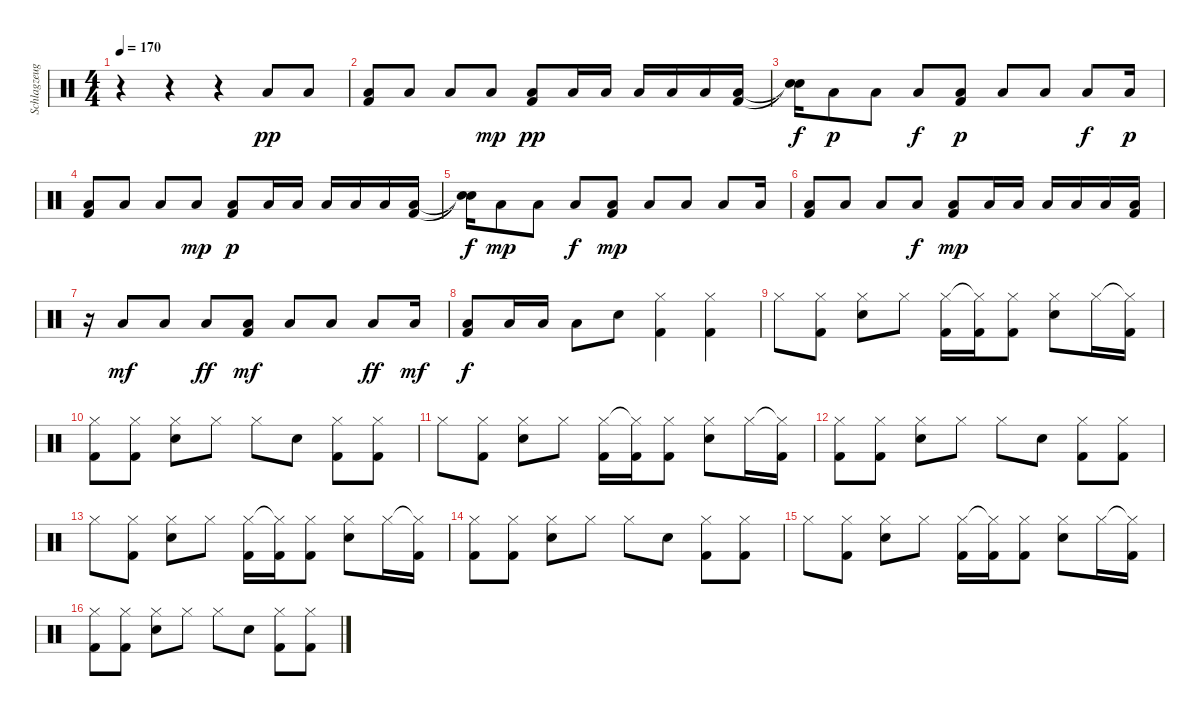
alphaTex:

\track ("Schlagzeug (Bela)" "Schlagzeug") {instrument percussion}
\staff {score}
\articulation defaults
\ts (4 4)
\tempo 170
\clef neutral
\ks c
r.4{dy pp} r.4 r.4 "Low Floor Tom (hit)".8 "Low Floor Tom (hit)".8 |
("Low Floor Tom (hit)" "Kick (hit) 2").8 "Low Floor Tom (hit)".8 "Low Floor Tom (hit)".8 "Low Floor Tom (hit)".8{dy mp} ("Low Floor Tom (hit)" "Kick (hit) 2").8{dy pp} "Low Floor Tom (hit)".16 "Low Floor Tom (hit)".16 "Low Floor Tom (hit)".16 "Low Floor Tom (hit)".16 "Low Floor Tom (hit)".16 ("Low Floor Tom (hit)" "Kick (hit) 2").16 |
("Snare (hit)"{t} "Snare (hit)"{t}).16{dy f} "Low Floor Tom (hit)".8{dy p} "Low Floor Tom (hit)".8 "Low Floor Tom (hit)".8{dy f} ("Low Floor Tom (hit)" "Kick (hit) 2").8{dy p} "Low Floor Tom (hit)".8 "Low Floor Tom (hit)".8 "Low Floor Tom (hit)".8{dy f} "Low Floor Tom (hit)".16{dy p} |
("Low Floor Tom (hit)" "Kick (hit) 2").8 "Low Floor Tom (hit)".8 "Low Floor Tom (hit)".8 "Low Floor Tom (hit)".8{dy mp} ("Low Floor Tom (hit)" "Kick (hit) 2").8{dy p} "Low Floor Tom (hit)".16 "Low Floor Tom (hit)".16 "Low Floor Tom (hit)".16 "Low Floor Tom (hit)".16 "Low Floor Tom (hit)".16 ("Low Floor Tom (hit)" "Kick (hit) 2").16 |
("Snare (hit)"{t} "Snare (hit)"{t}).16{dy f} "Low Floor Tom (hit)".8{dy mp} "Low Floor Tom (hit)".8 "Low Floor Tom (hit)".8{dy f} ("Low Floor Tom (hit)" "Kick (hit) 2").8{dy mp} "Low Floor Tom (hit)".8 "Low Floor Tom (hit)".8 "Low Floor Tom (hit)".8 "Low Floor Tom (hit)".16 |
("Low Floor Tom (hit)" "Kick (hit) 2").8 "Low Floor Tom (hit)".8 "Low Floor Tom (hit)".8 "Low Floor Tom (hit)".8{dy f} ("Low Floor Tom (hit)" "Kick (hit) 2").8{dy mp} "Low Floor Tom (hit)".16 "Low Floor Tom (hit)".16 "Low Floor Tom (hit)".16 "Low Floor Tom (hit)".16 "Low Floor Tom (hit)".16 ("Low Floor Tom (hit)" "Kick (hit) 2").16 |
r.16 "Low Floor Tom (hit)".8{dy mf} "Low Floor Tom (hit)".8 "Low Floor Tom (hit)".8{dy ff} ("Low Floor Tom (hit)" "Kick (hit) 2").8{dy mf} "Low Floor Tom (hit)".8 "Low Floor Tom (hit)".8 "Low Floor Tom (hit)".8{dy ff} "Low Floor Tom (hit)".16{dy mf} |
("Low Floor Tom (hit)" "Kick (hit) 2").8{dy f} "Low Floor Tom (hit)".16 "Low Floor Tom (hit)".16 "Low Floor Tom (hit)".8 "Snare (hit) 2".8 ("Hi-Hat (closed)" "Kick (hit) 2").4 ("Hi-Hat (closed)" "Kick (hit) 2").4 |
"Hi-Hat (closed)".8 ("Hi-Hat (closed)" "Kick (hit) 2").8 ("Hi-Hat (closed)" "Snare (hit) 2").8 "Hi-Hat (closed)".8 ("Hi-Hat (closed)" "Kick (hit) 2").16 ("Hi-Hat (closed)"{t} "Kick (hit) 2").16 ("Hi-Hat (closed)" "Kick (hit) 2").8 ("Hi-Hat (closed)" "Snare (hit) 2").8 "Hi-Hat (closed)".16 ("Hi-Hat (closed)"{t} "Kick (hit) 2").16 |
("Hi-Hat (closed)" "Kick (hit) 2").8 ("Hi-Hat (closed)" "Kick (hit) 2").8 ("Hi-Hat (closed)" "Snare (hit) 2").8 "Hi-Hat (closed)".8 "Hi-Hat (closed)".8 "Snare (hit) 2".8 ("Hi-Hat (closed)" "Kick (hit) 2").8 ("Hi-Hat (closed)" "Kick (hit) 2").8 |
"Hi-Hat (closed)".8 ("Hi-Hat (closed)" "Kick (hit) 2").8 ("Hi-Hat (closed)" "Snare (hit) 2").8 "Hi-Hat (closed)".8 ("Hi-Hat (closed)" "Kick (hit) 2").16 ("Hi-Hat (closed)"{t} "Kick (hit) 2").16 ("Hi-Hat (closed)" "Kick (hit) 2").8 ("Hi-Hat (closed)" "Snare (hit) 2").8 "Hi-Hat (closed)".16 ("Hi-Hat (closed)"{t} "Kick (hit) 2").16 |
("Hi-Hat (closed)" "Kick (hit) 2").8 ("Hi-Hat (closed)" "Kick (hit) 2").8 ("Hi-Hat (closed)" "Snare (hit) 2").8 "Hi-Hat (closed)".8 "Hi-Hat (closed)".8 "Snare (hit) 2".8 ("Hi-Hat (closed)" "Kick (hit) 2").8 ("Hi-Hat (closed)" "Kick (hit) 2").8 |
"Hi-Hat (closed)".8 ("Hi-Hat (closed)" "Kick (hit) 2").8 ("Hi-Hat (closed)" "Snare (hit) 2").8 "Hi-Hat (closed)".8 ("Hi-Hat (closed)" "Kick (hit) 2").16 ("Hi-Hat (closed)"{t} "Kick (hit) 2").16 ("Hi-Hat (closed)" "Kick (hit) 2").8 ("Hi-Hat (closed)" "Snare (hit) 2").8 "Hi-Hat (closed)".16 ("Hi-Hat (closed)"{t} "Kick (hit) 2").16 |
("Hi-Hat (closed)" "Kick (hit) 2").8 ("Hi-Hat (closed)" "Kick (hit) 2").8 ("Hi-Hat (closed)" "Snare (hit) 2").8 "Hi-Hat (closed)".8 "Hi-Hat (closed)".8 "Snare (hit) 2".8 ("Hi-Hat (closed)" "Kick (hit) 2").8 ("Hi-Hat (closed)" "Kick (hit) 2").8 |
"Hi-Hat (closed)".8 ("Hi-Hat (closed)" "Kick (hit) 2").8 ("Hi-Hat (closed)" "Snare (hit) 2").8 "Hi-Hat (closed)".8 ("Hi-Hat (closed)" "Kick (hit) 2").16 ("Hi-Hat (closed)"{t} "Kick (hit) 2").16 ("Hi-Hat (closed)" "Kick (hit) 2").8 ("Hi-Hat (closed)" "Snare (hit) 2").8 "Hi-Hat (closed)".16 ("Hi-Hat (closed)"{t} "Kick (hit) 2").16 |
("Hi-Hat (closed)" "Kick (hit) 2").8 ("Hi-Hat (closed)" "Kick (hit) 2").8 ("Hi-Hat (closed)" "Snare (hit) 2").8 "Hi-Hat (closed)".8 "Hi-Hat (closed)".8 "Snare (hit) 2".8 ("Hi-Hat (closed)" "Kick (hit) 2").8 ("Hi-Hat (closed)" "Kick (hit) 2").8
